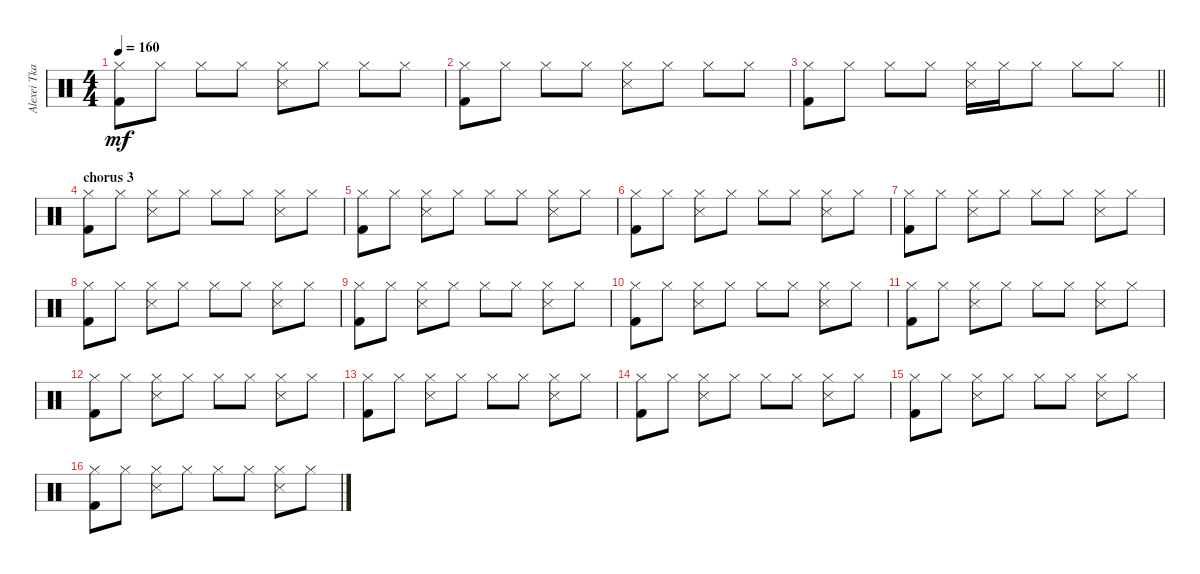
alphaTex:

\track ("Alexei Tkachevskiy " "Alexei Tka") {instrument percussion}
\staff {score}
\articulation defaults
\ts (4 4)
\tempo 160
\clef neutral
\ks c
("Hi-Hat (closed)" "Kick (hit) 2").8{dy mf} "Hi-Hat (closed)".8 "Hi-Hat (closed)".8 "Hi-Hat (closed)".8 ("Hi-Hat (closed)" "Snare (side stick) 3").8 "Hi-Hat (closed)".8 "Hi-Hat (closed)".8 "Hi-Hat (closed)".8 |
("Hi-Hat (closed)" "Kick (hit) 2").8 "Hi-Hat (closed)".8 "Hi-Hat (closed)".8 "Hi-Hat (closed)".8 ("Hi-Hat (closed)" "Snare (side stick) 3").8 "Hi-Hat (closed)".8 "Hi-Hat (closed)".8 "Hi-Hat (closed)".8 |
\barLineRight lightlight
("Hi-Hat (closed)" "Kick (hit) 2").8 "Hi-Hat (closed)".8 "Hi-Hat (closed)".8 "Hi-Hat (closed)".8 ("Hi-Hat (closed)" "Snare (side stick) 3").16 "Hi-Hat (closed)".16 "Hi-Hat (closed)".8 "Hi-Hat (closed)".8 "Hi-Hat (closed)".8 |
\section ("" "chorus 3")
("Hi-Hat (closed)" "Kick (hit) 2").8 "Hi-Hat (closed)".8 ("Hi-Hat (closed)" "Snare (side stick) 3").8 "Hi-Hat (closed)".8 "Hi-Hat (closed)".8 "Hi-Hat (closed)".8 ("Hi-Hat (closed)" "Snare (side stick) 3").8 "Hi-Hat (closed)".8 |
("Hi-Hat (closed)" "Kick (hit) 2").8 "Hi-Hat (closed)".8 ("Hi-Hat (closed)" "Snare (side stick) 3").8 "Hi-Hat (closed)".8 "Hi-Hat (closed)".8 "Hi-Hat (closed)".8 ("Hi-Hat (closed)" "Snare (side stick) 3").8 "Hi-Hat (closed)".8 |
("Hi-Hat (closed)" "Kick (hit) 2").8 "Hi-Hat (closed)".8 ("Hi-Hat (closed)" "Snare (side stick) 3").8 "Hi-Hat (closed)".8 "Hi-Hat (closed)".8 "Hi-Hat (closed)".8 ("Hi-Hat (closed)" "Snare (side stick) 3").8 "Hi-Hat (closed)".8 |
("Hi-Hat (closed)" "Kick (hit) 2").8 "Hi-Hat (closed)".8 ("Hi-Hat (closed)" "Snare (side stick) 3").8 "Hi-Hat (closed)".8 "Hi-Hat (closed)".8 "Hi-Hat (closed)".8 ("Hi-Hat (closed)" "Snare (side stick) 3").8 "Hi-Hat (closed)".8 |
("Hi-Hat (closed)" "Kick (hit) 2").8 "Hi-Hat (closed)".8 ("Hi-Hat (closed)" "Snare (side stick) 3").8 "Hi-Hat (closed)".8 "Hi-Hat (closed)".8 "Hi-Hat (closed)".8 ("Hi-Hat (closed)" "Snare (side stick) 3").8 "Hi-Hat (closed)".8 |
("Hi-Hat (closed)" "Kick (hit) 2").8 "Hi-Hat (closed)".8 ("Hi-Hat (closed)" "Snare (side stick) 3").8 "Hi-Hat (closed)".8 "Hi-Hat (closed)".8 "Hi-Hat (closed)".8 ("Hi-Hat (closed)" "Snare (side stick) 3").8 "Hi-Hat (closed)".8 |
("Hi-Hat (closed)" "Kick (hit) 2").8 "Hi-Hat (closed)".8 ("Hi-Hat (closed)" "Snare (side stick) 3").8 "Hi-Hat (closed)".8 "Hi-Hat (closed)".8 "Hi-Hat (closed)".8 ("Hi-Hat (closed)" "Snare (side stick) 3").8 "Hi-Hat (closed)".8 |
("Hi-Hat (closed)" "Kick (hit) 2").8 "Hi-Hat (closed)".8 ("Hi-Hat (closed)" "Snare (side stick) 3").8 "Hi-Hat (closed)".8 "Hi-Hat (closed)".8 "Hi-Hat (closed)".8 ("Hi-Hat (closed)" "Snare (side stick) 3").8 "Hi-Hat (closed)".8 |
("Hi-Hat (closed)" "Kick (hit) 2").8 "Hi-Hat (closed)".8 ("Hi-Hat (closed)" "Snare (side stick) 3").8 "Hi-Hat (closed)".8 "Hi-Hat (closed)".8 "Hi-Hat (closed)".8 ("Hi-Hat (closed)" "Snare (side stick) 3").8 "Hi-Hat (closed)".8 |
("Hi-Hat (closed)" "Kick (hit) 2").8 "Hi-Hat (closed)".8 ("Hi-Hat (closed)" "Snare (side stick) 3").8 "Hi-Hat (closed)".8 "Hi-Hat (closed)".8 "Hi-Hat (closed)".8 ("Hi-Hat (closed)" "Snare (side stick) 3").8 "Hi-Hat (closed)".8 |
("Hi-Hat (closed)" "Kick (hit) 2").8 "Hi-Hat (closed)".8 ("Hi-Hat (closed)" "Snare (side stick) 3").8 "Hi-Hat (closed)".8 "Hi-Hat (closed)".8 "Hi-Hat (closed)".8 ("Hi-Hat (closed)" "Snare (side stick) 3").8 "Hi-Hat (closed)".8 |
("Hi-Hat (closed)" "Kick (hit) 2").8 "Hi-Hat (closed)".8 ("Hi-Hat (closed)" "Snare (side stick) 3").8 "Hi-Hat (closed)".8 "Hi-Hat (closed)".8 "Hi-Hat (closed)".8 ("Hi-Hat (closed)" "Snare (side stick) 3").8 "Hi-Hat (closed)".8 |
("Hi-Hat (closed)" "Kick (hit) 2").8 "Hi-Hat (closed)".8 ("Hi-Hat (closed)" "Snare (side stick) 3").8 "Hi-Hat (closed)".8 "Hi-Hat (closed)".8 "Hi-Hat (closed)".8 ("Hi-Hat (closed)" "Snare (side stick) 3").8 "Hi-Hat (closed)".8
